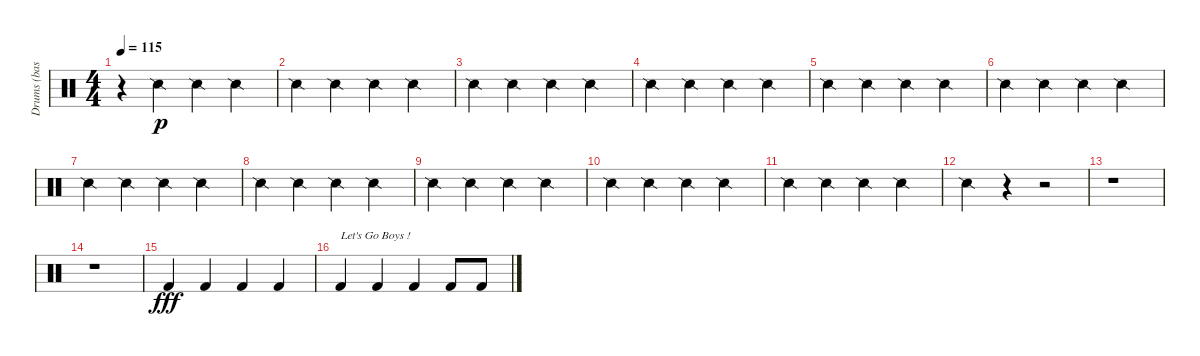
\track ("Drums (bass drum)" "Drums (bas") {instrument percussion}
\staff {score}
\articulation defaults
\ts (4 4)
\tempo 115
\clef neutral
\ks c
r.4{dy p} "Snare (side stick) 2".4 "Snare (side stick) 2".4 "Snare (side stick) 2".4 |
"Snare (side stick) 2".4 "Snare (side stick) 2".4 "Snare (side stick) 2".4 "Snare (side stick) 2".4 |
"Snare (side stick) 2".4 "Snare (side stick) 2".4 "Snare (side stick) 2".4 "Snare (side stick) 2".4 |
"Snare (side stick) 2".4 "Snare (side stick) 2".4 "Snare (side stick) 2".4 "Snare (side stick) 2".4 |
"Snare (side stick) 2".4 "Snare (side stick) 2".4 "Snare (side stick) 2".4 "Snare (side stick) 2".4 |
"Snare (side stick) 2".4 "Snare (side stick) 2".4 "Snare (side stick) 2".4 "Snare (side stick) 2".4 |
"Snare (side stick) 2".4 "Snare (side stick) 2".4 "Snare (side stick) 2".4 "Snare (side stick) 2".4 |
"Snare (side stick) 2".4 "Snare (side stick) 2".4 "Snare (side stick) 2".4 "Snare (side stick) 2".4 |
"Snare (side stick) 2".4 "Snare (side stick) 2".4 "Snare (side stick) 2".4 "Snare (side stick) 2".4 |
"Snare (side stick) 2".4 "Snare (side stick) 2".4 "Snare (side stick) 2".4 "Snare (side stick) 2".4 |
"Snare (side stick) 2".4 "Snare (side stick) 2".4 "Snare (side stick) 2".4 "Snare (side stick) 2".4 |
"Snare (side stick) 2".4 r.4 r.2 |
r.1 |
r.1 |
"Kick (hit) 2".4{dy fff} "Kick (hit) 2".4 "Kick (hit) 2".4 "Kick (hit) 2".4 |
"Kick (hit) 2".4{txt "Let's Go Boys !"} "Kick (hit) 2".4 "Kick (hit) 2".4 "Kick (hit) 2".8 "Kick (hit) 2".8
